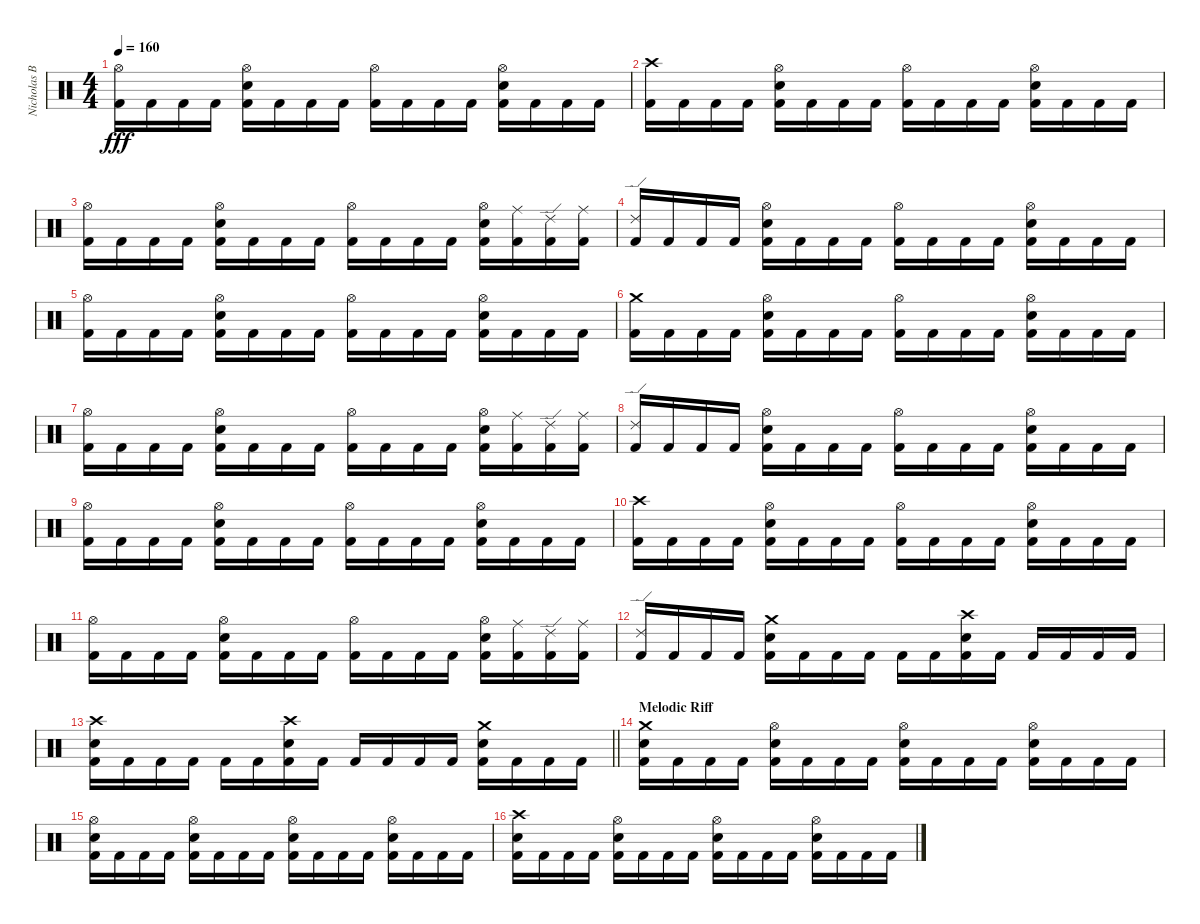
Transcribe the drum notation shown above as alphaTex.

\track ("Nicholas Barker" "Nicholas B") {instrument percussion}
\staff {score}
\articulation defaults
\ts (4 4)
\tempo 160
\clef neutral
\ks c
("Hi-Hat (open)" "Kick (hit) 2").16{dy fff} "Kick (hit) 2".16 "Kick (hit) 2".16 "Kick (hit) 2".16 ("Hi-Hat (open)" "Snare (hit) 2" "Kick (hit) 2").16 "Kick (hit) 2".16 "Kick (hit) 2".16 "Kick (hit) 2".16 ("Hi-Hat (open)" "Kick (hit) 2").16 "Kick (hit) 2".16 "Kick (hit) 2".16 "Kick (hit) 2".16 ("Hi-Hat (open)" "Snare (hit) 2" "Kick (hit) 2").16 "Kick (hit) 2".16 "Kick (hit) 2".16 "Kick (hit) 2".16 |
("Crash high (hit)" "Kick (hit) 2").16 "Kick (hit) 2".16 "Kick (hit) 2".16 "Kick (hit) 2".16 ("Hi-Hat (open)" "Snare (hit) 2" "Kick (hit) 2").16 "Kick (hit) 2".16 "Kick (hit) 2".16 "Kick (hit) 2".16 ("Hi-Hat (open)" "Kick (hit) 2").16 "Kick (hit) 2".16 "Kick (hit) 2".16 "Kick (hit) 2".16 ("Hi-Hat (open)" "Snare (hit) 2" "Kick (hit) 2").16 "Kick (hit) 2".16 "Kick (hit) 2".16 "Kick (hit) 2".16 |
("Hi-Hat (open)" "Kick (hit) 2").16 "Kick (hit) 2".16 "Kick (hit) 2".16 "Kick (hit) 2".16 ("Hi-Hat (open)" "Snare (hit) 2" "Kick (hit) 2").16 "Kick (hit) 2".16 "Kick (hit) 2".16 "Kick (hit) 2".16 ("Hi-Hat (open)" "Kick (hit) 2").16 "Kick (hit) 2".16 "Kick (hit) 2".16 "Kick (hit) 2".16 ("Hi-Hat (open)" "Snare (hit) 2" "Kick (hit) 2").16 ("Ride (middle)" "Kick (hit) 2").16 ("Ride (edge) 2" "Kick (hit) 2").16 ("Ride (middle)" "Kick (hit) 2").16 |
("Ride (edge) 2" "Kick (hit) 2").16 "Kick (hit) 2".16 "Kick (hit) 2".16 "Kick (hit) 2".16 ("Hi-Hat (open)" "Snare (hit) 2" "Kick (hit) 2").16 "Kick (hit) 2".16 "Kick (hit) 2".16 "Kick (hit) 2".16 ("Hi-Hat (open)" "Kick (hit) 2").16 "Kick (hit) 2".16 "Kick (hit) 2".16 "Kick (hit) 2".16 ("Hi-Hat (open)" "Snare (hit) 2" "Kick (hit) 2").16 "Kick (hit) 2".16 "Kick (hit) 2".16 "Kick (hit) 2".16 |
("Hi-Hat (open)" "Kick (hit) 2").16 "Kick (hit) 2".16 "Kick (hit) 2".16 "Kick (hit) 2".16 ("Hi-Hat (open)" "Snare (hit) 2" "Kick (hit) 2").16 "Kick (hit) 2".16 "Kick (hit) 2".16 "Kick (hit) 2".16 ("Hi-Hat (open)" "Kick (hit) 2").16 "Kick (hit) 2".16 "Kick (hit) 2".16 "Kick (hit) 2".16 ("Hi-Hat (open)" "Snare (hit) 2" "Kick (hit) 2").16 "Kick (hit) 2".16 "Kick (hit) 2".16 "Kick (hit) 2".16 |
("Crash medium (hit)" "Kick (hit) 2").16 "Kick (hit) 2".16 "Kick (hit) 2".16 "Kick (hit) 2".16 ("Hi-Hat (open)" "Snare (hit) 2" "Kick (hit) 2").16 "Kick (hit) 2".16 "Kick (hit) 2".16 "Kick (hit) 2".16 ("Hi-Hat (open)" "Kick (hit) 2").16 "Kick (hit) 2".16 "Kick (hit) 2".16 "Kick (hit) 2".16 ("Hi-Hat (open)" "Snare (hit) 2" "Kick (hit) 2").16 "Kick (hit) 2".16 "Kick (hit) 2".16 "Kick (hit) 2".16 |
("Hi-Hat (open)" "Kick (hit) 2").16 "Kick (hit) 2".16 "Kick (hit) 2".16 "Kick (hit) 2".16 ("Hi-Hat (open)" "Snare (hit) 2" "Kick (hit) 2").16 "Kick (hit) 2".16 "Kick (hit) 2".16 "Kick (hit) 2".16 ("Hi-Hat (open)" "Kick (hit) 2").16 "Kick (hit) 2".16 "Kick (hit) 2".16 "Kick (hit) 2".16 ("Hi-Hat (open)" "Snare (hit) 2" "Kick (hit) 2").16 ("Ride (middle)" "Kick (hit) 2").16 ("Ride (edge) 2" "Kick (hit) 2").16 ("Ride (middle)" "Kick (hit) 2").16 |
("Ride (edge) 2" "Kick (hit) 2").16 "Kick (hit) 2".16 "Kick (hit) 2".16 "Kick (hit) 2".16 ("Hi-Hat (open)" "Snare (hit) 2" "Kick (hit) 2").16 "Kick (hit) 2".16 "Kick (hit) 2".16 "Kick (hit) 2".16 ("Hi-Hat (open)" "Kick (hit) 2").16 "Kick (hit) 2".16 "Kick (hit) 2".16 "Kick (hit) 2".16 ("Hi-Hat (open)" "Snare (hit) 2" "Kick (hit) 2").16 "Kick (hit) 2".16 "Kick (hit) 2".16 "Kick (hit) 2".16 |
("Hi-Hat (open)" "Kick (hit) 2").16 "Kick (hit) 2".16 "Kick (hit) 2".16 "Kick (hit) 2".16 ("Hi-Hat (open)" "Snare (hit) 2" "Kick (hit) 2").16 "Kick (hit) 2".16 "Kick (hit) 2".16 "Kick (hit) 2".16 ("Hi-Hat (open)" "Kick (hit) 2").16 "Kick (hit) 2".16 "Kick (hit) 2".16 "Kick (hit) 2".16 ("Hi-Hat (open)" "Snare (hit) 2" "Kick (hit) 2").16 "Kick (hit) 2".16 "Kick (hit) 2".16 "Kick (hit) 2".16 |
("Crash high (hit)" "Kick (hit) 2").16 "Kick (hit) 2".16 "Kick (hit) 2".16 "Kick (hit) 2".16 ("Hi-Hat (open)" "Snare (hit) 2" "Kick (hit) 2").16 "Kick (hit) 2".16 "Kick (hit) 2".16 "Kick (hit) 2".16 ("Hi-Hat (open)" "Kick (hit) 2").16 "Kick (hit) 2".16 "Kick (hit) 2".16 "Kick (hit) 2".16 ("Hi-Hat (open)" "Snare (hit) 2" "Kick (hit) 2").16 "Kick (hit) 2".16 "Kick (hit) 2".16 "Kick (hit) 2".16 |
("Hi-Hat (open)" "Kick (hit) 2").16 "Kick (hit) 2".16 "Kick (hit) 2".16 "Kick (hit) 2".16 ("Hi-Hat (open)" "Snare (hit) 2" "Kick (hit) 2").16 "Kick (hit) 2".16 "Kick (hit) 2".16 "Kick (hit) 2".16 ("Hi-Hat (open)" "Kick (hit) 2").16 "Kick (hit) 2".16 "Kick (hit) 2".16 "Kick (hit) 2".16 ("Hi-Hat (open)" "Snare (hit) 2" "Kick (hit) 2").16 ("Ride (middle)" "Kick (hit) 2").16 ("Ride (edge) 2" "Kick (hit) 2").16 ("Ride (middle)" "Kick (hit) 2").16 |
("Ride (edge) 2" "Kick (hit) 2").16 "Kick (hit) 2".16 "Kick (hit) 2".16 "Kick (hit) 2".16 ("Crash medium (hit)" "Snare (hit) 2" "Kick (hit) 2").16 "Kick (hit) 2".16 "Kick (hit) 2".16 "Kick (hit) 2".16 "Kick (hit) 2".16 "Kick (hit) 2".16 ("Crash high (hit)" "Snare (hit) 2" "Kick (hit) 2").16 "Kick (hit) 2".16 "Kick (hit) 2".16 "Kick (hit) 2".16 "Kick (hit) 2".16 "Kick (hit) 2".16 |
\barLineRight lightlight
("Crash high (hit)" "Snare (hit) 2" "Kick (hit) 2").16 "Kick (hit) 2".16 "Kick (hit) 2".16 "Kick (hit) 2".16 "Kick (hit) 2".16 "Kick (hit) 2".16 ("Crash high (hit)" "Snare (hit) 2" "Kick (hit) 2").16 "Kick (hit) 2".16 "Kick (hit) 2".16 "Kick (hit) 2".16 "Kick (hit) 2".16 "Kick (hit) 2".16 ("Crash medium (hit)" "Snare (hit) 2" "Kick (hit) 2").16 "Kick (hit) 2".16 "Kick (hit) 2".16 "Kick (hit) 2".16 |
\section ("" "Melodic Riff")
("Crash medium (hit)" "Snare (hit) 2" "Kick (hit) 2").16 "Kick (hit) 2".16 "Kick (hit) 2".16 "Kick (hit) 2".16 ("Hi-Hat (open)" "Snare (hit) 2" "Kick (hit) 2").16 "Kick (hit) 2".16 "Kick (hit) 2".16 "Kick (hit) 2".16 ("Hi-Hat (open)" "Snare (hit) 2" "Kick (hit) 2").16 "Kick (hit) 2".16 "Kick (hit) 2".16 "Kick (hit) 2".16 ("Hi-Hat (open)" "Snare (hit) 2" "Kick (hit) 2").16 "Kick (hit) 2".16 "Kick (hit) 2".16 "Kick (hit) 2".16 |
("Hi-Hat (open)" "Snare (hit) 2" "Kick (hit) 2").16 "Kick (hit) 2".16 "Kick (hit) 2".16 "Kick (hit) 2".16 ("Hi-Hat (open)" "Snare (hit) 2" "Kick (hit) 2").16 "Kick (hit) 2".16 "Kick (hit) 2".16 "Kick (hit) 2".16 ("Hi-Hat (open)" "Snare (hit) 2" "Kick (hit) 2").16 "Kick (hit) 2".16 "Kick (hit) 2".16 "Kick (hit) 2".16 ("Hi-Hat (open)" "Snare (hit) 2" "Kick (hit) 2").16 "Kick (hit) 2".16 "Kick (hit) 2".16 "Kick (hit) 2".16 |
("Crash high (hit)" "Snare (hit) 2" "Kick (hit) 2").16 "Kick (hit) 2".16 "Kick (hit) 2".16 "Kick (hit) 2".16 ("Hi-Hat (open)" "Snare (hit) 2" "Kick (hit) 2").16 "Kick (hit) 2".16 "Kick (hit) 2".16 "Kick (hit) 2".16 ("Hi-Hat (open)" "Snare (hit) 2" "Kick (hit) 2").16 "Kick (hit) 2".16 "Kick (hit) 2".16 "Kick (hit) 2".16 ("Hi-Hat (open)" "Snare (hit) 2" "Kick (hit) 2").16 "Kick (hit) 2".16 "Kick (hit) 2".16 "Kick (hit) 2".16
